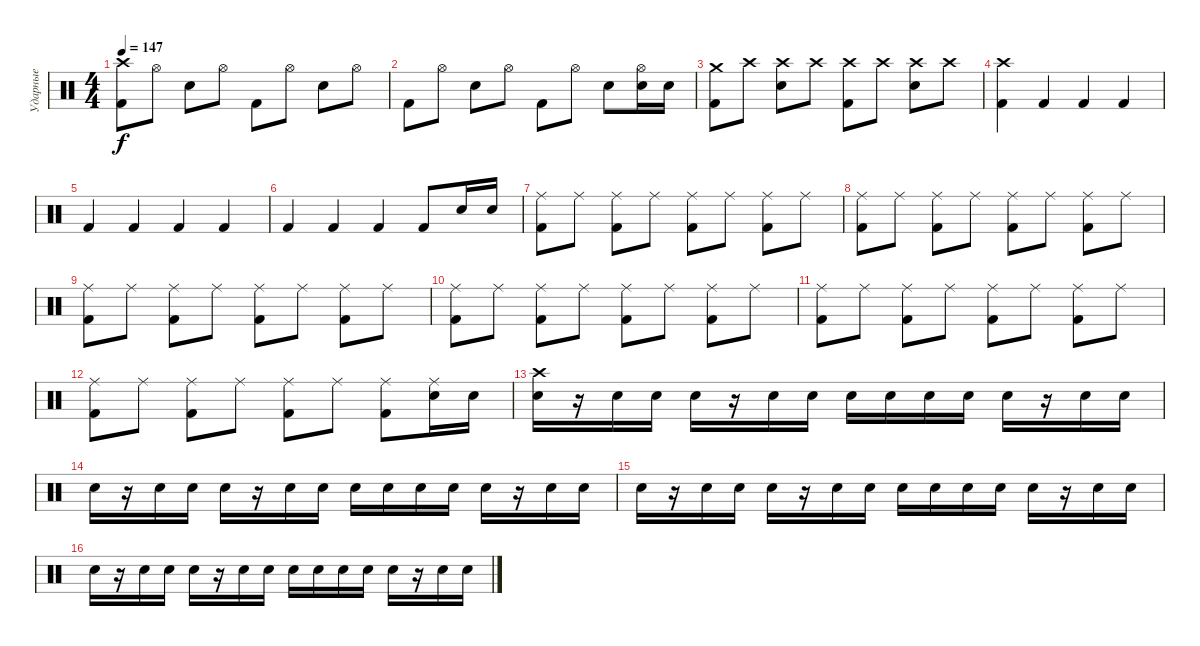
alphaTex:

\track ("Ударные" "Ударные") {instrument percussion}
\staff {score}
\articulation defaults
\ts (4 4)
\tempo 147
\clef neutral
\ks c
("Crash high (hit)" "Kick (hit) 2").8{dy f} "Hi-Hat (open)".8 "Electric Snare (hit)".8 "Hi-Hat (open)".8 "Kick (hit) 2".8 "Hi-Hat (open)".8 "Electric Snare (hit)".8 "Hi-Hat (open)".8 |
"Kick (hit) 2".8 "Hi-Hat (open)".8 "Electric Snare (hit)".8 "Hi-Hat (open)".8 "Kick (hit) 2".8 "Hi-Hat (open)".8 "Electric Snare (hit)".8 ("Hi-Hat (open)" "Electric Snare (hit)").16 "Electric Snare (hit)".16 |
("Crash medium (hit)" "Kick (hit) 2").8 "Crash high (hit)".8 ("Crash high (hit)" "Electric Snare (hit)").8 "Crash high (hit)".8 ("Crash high (hit)" "Kick (hit) 2").8 "Crash high (hit)".8 ("Crash high (hit)" "Electric Snare (hit)").8 "Crash high (hit)".8 |
("Crash high (hit)" "Kick (hit) 2").4 "Kick (hit) 2".4 "Kick (hit) 2".4 "Kick (hit) 2".4 |
"Kick (hit) 2".4 "Kick (hit) 2".4 "Kick (hit) 2".4 "Kick (hit) 2".4 |
"Kick (hit) 2".4 "Kick (hit) 2".4 "Kick (hit) 2".4 "Kick (hit) 2".8 "Electric Snare (hit)".16 "Electric Snare (hit)".16 |
("Ride (middle)" "Kick (hit) 2").8 "Ride (middle)".8 ("Ride (middle)" "Kick (hit) 2").8 "Ride (middle)".8 ("Ride (middle)" "Kick (hit) 2").8 "Ride (middle)".8 ("Ride (middle)" "Kick (hit) 2").8 "Ride (middle)".8 |
("Ride (middle)" "Kick (hit) 2").8 "Ride (middle)".8 ("Ride (middle)" "Kick (hit) 2").8 "Ride (middle)".8 ("Ride (middle)" "Kick (hit) 2").8 "Ride (middle)".8 ("Ride (middle)" "Kick (hit) 2").8 "Ride (middle)".8 |
("Ride (middle)" "Kick (hit) 2").8 "Ride (middle)".8 ("Ride (middle)" "Kick (hit) 2").8 "Ride (middle)".8 ("Ride (middle)" "Kick (hit) 2").8 "Ride (middle)".8 ("Ride (middle)" "Kick (hit) 2").8 "Ride (middle)".8 |
("Ride (middle)" "Kick (hit) 2").8 "Ride (middle)".8 ("Ride (middle)" "Kick (hit) 2").8 "Ride (middle)".8 ("Ride (middle)" "Kick (hit) 2").8 "Ride (middle)".8 ("Ride (middle)" "Kick (hit) 2").8 "Ride (middle)".8 |
("Ride (middle)" "Kick (hit) 2").8 "Ride (middle)".8 ("Ride (middle)" "Kick (hit) 2").8 "Ride (middle)".8 ("Ride (middle)" "Kick (hit) 2").8 "Ride (middle)".8 ("Ride (middle)" "Kick (hit) 2").8 "Ride (middle)".8 |
("Ride (middle)" "Kick (hit) 2").8 "Ride (middle)".8 ("Ride (middle)" "Kick (hit) 2").8 "Ride (middle)".8 ("Ride (middle)" "Kick (hit) 2").8 "Ride (middle)".8 ("Ride (middle)" "Kick (hit) 2").8 ("Ride (middle)" "Electric Snare (hit)").16 "Electric Snare (hit)".16 |
("Crash high (hit)" "Electric Snare (hit)").16 r.16 "Electric Snare (hit)".16 "Electric Snare (hit)".16 "Electric Snare (hit)".16 r.16 "Electric Snare (hit)".16 "Electric Snare (hit)".16 "Electric Snare (hit)".16 "Electric Snare (hit)".16 "Electric Snare (hit)".16 "Electric Snare (hit)".16 "Electric Snare (hit)".16 r.16 "Electric Snare (hit)".16 "Electric Snare (hit)".16 |
"Electric Snare (hit)".16 r.16 "Electric Snare (hit)".16 "Electric Snare (hit)".16 "Electric Snare (hit)".16 r.16 "Electric Snare (hit)".16 "Electric Snare (hit)".16 "Electric Snare (hit)".16 "Electric Snare (hit)".16 "Electric Snare (hit)".16 "Electric Snare (hit)".16 "Electric Snare (hit)".16 r.16 "Electric Snare (hit)".16 "Electric Snare (hit)".16 |
"Electric Snare (hit)".16 r.16 "Electric Snare (hit)".16 "Electric Snare (hit)".16 "Electric Snare (hit)".16 r.16 "Electric Snare (hit)".16 "Electric Snare (hit)".16 "Electric Snare (hit)".16 "Electric Snare (hit)".16 "Electric Snare (hit)".16 "Electric Snare (hit)".16 "Electric Snare (hit)".16 r.16 "Electric Snare (hit)".16 "Electric Snare (hit)".16 |
"Electric Snare (hit)".16 r.16 "Electric Snare (hit)".16 "Electric Snare (hit)".16 "Electric Snare (hit)".16 r.16 "Electric Snare (hit)".16 "Electric Snare (hit)".16 "Electric Snare (hit)".16 "Electric Snare (hit)".16 "Electric Snare (hit)".16 "Electric Snare (hit)".16 "Electric Snare (hit)".16 r.16 "Electric Snare (hit)".16 "Electric Snare (hit)".16
